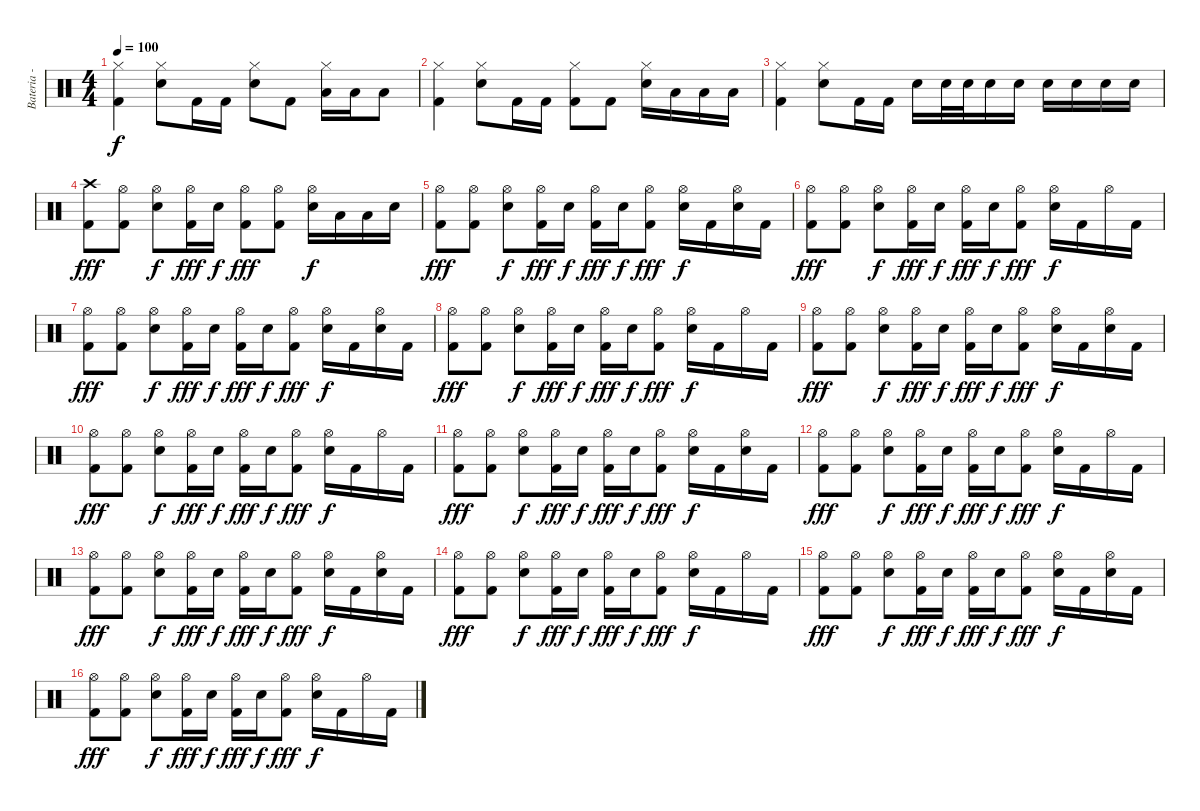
\track ("Bateria - Drums" "Bateria - ") {instrument percussion}
\staff {score}
\articulation defaults
\ts (4 4)
\tempo 100
\clef neutral
\ks c
("Hi-Hat (closed)" "Kick (hit) 2").4{dy f} ("Hi-Hat (closed)" "Electric Snare (hit)").8 "Kick (hit) 2".16 "Kick (hit) 2".16 ("Hi-Hat (closed)" "Electric Snare (hit)").8 "Kick (hit) 2".8 ("Hi-Hat (closed)" "Low Tom (hit)").16 "Low Floor Tom (hit)".16 "Low Floor Tom (hit)".8 |
("Hi-Hat (closed)" "Kick (hit) 2").4 ("Hi-Hat (closed)" "Electric Snare (hit)").8 "Kick (hit) 2".16 "Kick (hit) 2".16 ("Hi-Hat (closed)" "Kick (hit) 2").8 "Kick (hit) 2".8 ("Hi-Hat (closed)" "Electric Snare (hit)").16 "Low Tom (hit)".16 "Low Tom (hit)".16 "Low Floor Tom (hit)".16 |
("Hi-Hat (closed)" "Kick (hit) 2").4 ("Hi-Hat (closed)" "Electric Snare (hit)").8 "Kick (hit) 2".16 "Kick (hit) 2".16 "Electric Snare (hit)".16 "Electric Snare (hit)".32 "Electric Snare (hit)".32 "Electric Snare (hit)".16 "Electric Snare (hit)".16 "Electric Snare (hit)".16 "Electric Snare (hit)".16 "Electric Snare (hit)".16 "Electric Snare (hit)".16 |
("Crash high (hit)" "Kick (hit) 2").8{dy fff} ("Hi-Hat (open)" "Kick (hit) 2").8 ("Hi-Hat (open)" "Electric Snare (hit)").8{dy f} ("Hi-Hat (open)" "Kick (hit) 2").16{dy fff} "Electric Snare (hit)".16{dy f} ("Hi-Hat (open)" "Kick (hit) 2").8{dy fff} ("Hi-Hat (open)" "Kick (hit) 2").8 ("Hi-Hat (open)" "Electric Snare (hit)").16{dy f} "Low Floor Tom (hit)".16 "Low Floor Tom (hit)".16 "Electric Snare (hit)".16 |
("Hi-Hat (open)" "Kick (hit) 2").8{dy fff} ("Hi-Hat (open)" "Kick (hit) 2").8 ("Hi-Hat (open)" "Electric Snare (hit)").8{dy f} ("Hi-Hat (open)" "Kick (hit) 2").16{dy fff} "Electric Snare (hit)".16{dy f} ("Hi-Hat (open)" "Kick (hit) 2").16{dy fff} "Electric Snare (hit)".16{dy f} ("Hi-Hat (open)" "Kick (hit) 2").8{dy fff} ("Hi-Hat (open)" "Electric Snare (hit)").16{dy f} "Kick (hit) 2".16 ("Hi-Hat (open)" "Electric Snare (hit)").16 "Kick (hit) 2".16 |
("Hi-Hat (open)" "Kick (hit) 2").8{dy fff} ("Hi-Hat (open)" "Kick (hit) 2").8 ("Hi-Hat (open)" "Electric Snare (hit)").8{dy f} ("Hi-Hat (open)" "Kick (hit) 2").16{dy fff} "Electric Snare (hit)".16{dy f} ("Hi-Hat (open)" "Kick (hit) 2").16{dy fff} "Electric Snare (hit)".16{dy f} ("Hi-Hat (open)" "Kick (hit) 2").8{dy fff} ("Hi-Hat (open)" "Electric Snare (hit)").16{dy f} "Kick (hit) 2".16 "Hi-Hat (open)".16 "Kick (hit) 2".16 |
("Hi-Hat (open)" "Kick (hit) 2").8{dy fff} ("Hi-Hat (open)" "Kick (hit) 2").8 ("Hi-Hat (open)" "Electric Snare (hit)").8{dy f} ("Hi-Hat (open)" "Kick (hit) 2").16{dy fff} "Electric Snare (hit)".16{dy f} ("Hi-Hat (open)" "Kick (hit) 2").16{dy fff} "Electric Snare (hit)".16{dy f} ("Hi-Hat (open)" "Kick (hit) 2").8{dy fff} ("Hi-Hat (open)" "Electric Snare (hit)").16{dy f} "Kick (hit) 2".16 ("Hi-Hat (open)" "Electric Snare (hit)").16 "Kick (hit) 2".16 |
("Hi-Hat (open)" "Kick (hit) 2").8{dy fff} ("Hi-Hat (open)" "Kick (hit) 2").8 ("Hi-Hat (open)" "Electric Snare (hit)").8{dy f} ("Hi-Hat (open)" "Kick (hit) 2").16{dy fff} "Electric Snare (hit)".16{dy f} ("Hi-Hat (open)" "Kick (hit) 2").16{dy fff} "Electric Snare (hit)".16{dy f} ("Hi-Hat (open)" "Kick (hit) 2").8{dy fff} ("Hi-Hat (open)" "Electric Snare (hit)").16{dy f} "Kick (hit) 2".16 "Hi-Hat (open)".16 "Kick (hit) 2".16 |
("Hi-Hat (open)" "Kick (hit) 2").8{dy fff} ("Hi-Hat (open)" "Kick (hit) 2").8 ("Hi-Hat (open)" "Electric Snare (hit)").8{dy f} ("Hi-Hat (open)" "Kick (hit) 2").16{dy fff} "Electric Snare (hit)".16{dy f} ("Hi-Hat (open)" "Kick (hit) 2").16{dy fff} "Electric Snare (hit)".16{dy f} ("Hi-Hat (open)" "Kick (hit) 2").8{dy fff} ("Hi-Hat (open)" "Electric Snare (hit)").16{dy f} "Kick (hit) 2".16 ("Hi-Hat (open)" "Electric Snare (hit)").16 "Kick (hit) 2".16 |
("Hi-Hat (open)" "Kick (hit) 2").8{dy fff} ("Hi-Hat (open)" "Kick (hit) 2").8 ("Hi-Hat (open)" "Electric Snare (hit)").8{dy f} ("Hi-Hat (open)" "Kick (hit) 2").16{dy fff} "Electric Snare (hit)".16{dy f} ("Hi-Hat (open)" "Kick (hit) 2").16{dy fff} "Electric Snare (hit)".16{dy f} ("Hi-Hat (open)" "Kick (hit) 2").8{dy fff} ("Hi-Hat (open)" "Electric Snare (hit)").16{dy f} "Kick (hit) 2".16 "Hi-Hat (open)".16 "Kick (hit) 2".16 |
("Hi-Hat (open)" "Kick (hit) 2").8{dy fff} ("Hi-Hat (open)" "Kick (hit) 2").8 ("Hi-Hat (open)" "Electric Snare (hit)").8{dy f} ("Hi-Hat (open)" "Kick (hit) 2").16{dy fff} "Electric Snare (hit)".16{dy f} ("Hi-Hat (open)" "Kick (hit) 2").16{dy fff} "Electric Snare (hit)".16{dy f} ("Hi-Hat (open)" "Kick (hit) 2").8{dy fff} ("Hi-Hat (open)" "Electric Snare (hit)").16{dy f} "Kick (hit) 2".16 ("Hi-Hat (open)" "Electric Snare (hit)").16 "Kick (hit) 2".16 |
("Hi-Hat (open)" "Kick (hit) 2").8{dy fff} ("Hi-Hat (open)" "Kick (hit) 2").8 ("Hi-Hat (open)" "Electric Snare (hit)").8{dy f} ("Hi-Hat (open)" "Kick (hit) 2").16{dy fff} "Electric Snare (hit)".16{dy f} ("Hi-Hat (open)" "Kick (hit) 2").16{dy fff} "Electric Snare (hit)".16{dy f} ("Hi-Hat (open)" "Kick (hit) 2").8{dy fff} ("Hi-Hat (open)" "Electric Snare (hit)").16{dy f} "Kick (hit) 2".16 "Hi-Hat (open)".16 "Kick (hit) 2".16 |
("Hi-Hat (open)" "Kick (hit) 2").8{dy fff} ("Hi-Hat (open)" "Kick (hit) 2").8 ("Hi-Hat (open)" "Electric Snare (hit)").8{dy f} ("Hi-Hat (open)" "Kick (hit) 2").16{dy fff} "Electric Snare (hit)".16{dy f} ("Hi-Hat (open)" "Kick (hit) 2").16{dy fff} "Electric Snare (hit)".16{dy f} ("Hi-Hat (open)" "Kick (hit) 2").8{dy fff} ("Hi-Hat (open)" "Electric Snare (hit)").16{dy f} "Kick (hit) 2".16 ("Hi-Hat (open)" "Electric Snare (hit)").16 "Kick (hit) 2".16 |
("Hi-Hat (open)" "Kick (hit) 2").8{dy fff} ("Hi-Hat (open)" "Kick (hit) 2").8 ("Hi-Hat (open)" "Electric Snare (hit)").8{dy f} ("Hi-Hat (open)" "Kick (hit) 2").16{dy fff} "Electric Snare (hit)".16{dy f} ("Hi-Hat (open)" "Kick (hit) 2").16{dy fff} "Electric Snare (hit)".16{dy f} ("Hi-Hat (open)" "Kick (hit) 2").8{dy fff} ("Hi-Hat (open)" "Electric Snare (hit)").16{dy f} "Kick (hit) 2".16 "Hi-Hat (open)".16 "Kick (hit) 2".16 |
("Hi-Hat (open)" "Kick (hit) 2").8{dy fff} ("Hi-Hat (open)" "Kick (hit) 2").8 ("Hi-Hat (open)" "Electric Snare (hit)").8{dy f} ("Hi-Hat (open)" "Kick (hit) 2").16{dy fff} "Electric Snare (hit)".16{dy f} ("Hi-Hat (open)" "Kick (hit) 2").16{dy fff} "Electric Snare (hit)".16{dy f} ("Hi-Hat (open)" "Kick (hit) 2").8{dy fff} ("Hi-Hat (open)" "Electric Snare (hit)").16{dy f} "Kick (hit) 2".16 ("Hi-Hat (open)" "Electric Snare (hit)").16 "Kick (hit) 2".16 |
("Hi-Hat (open)" "Kick (hit) 2").8{dy fff} ("Hi-Hat (open)" "Kick (hit) 2").8 ("Hi-Hat (open)" "Electric Snare (hit)").8{dy f} ("Hi-Hat (open)" "Kick (hit) 2").16{dy fff} "Electric Snare (hit)".16{dy f} ("Hi-Hat (open)" "Kick (hit) 2").16{dy fff} "Electric Snare (hit)".16{dy f} ("Hi-Hat (open)" "Kick (hit) 2").8{dy fff} ("Hi-Hat (open)" "Electric Snare (hit)").16{dy f} "Kick (hit) 2".16 "Hi-Hat (open)".16 "Kick (hit) 2".16
